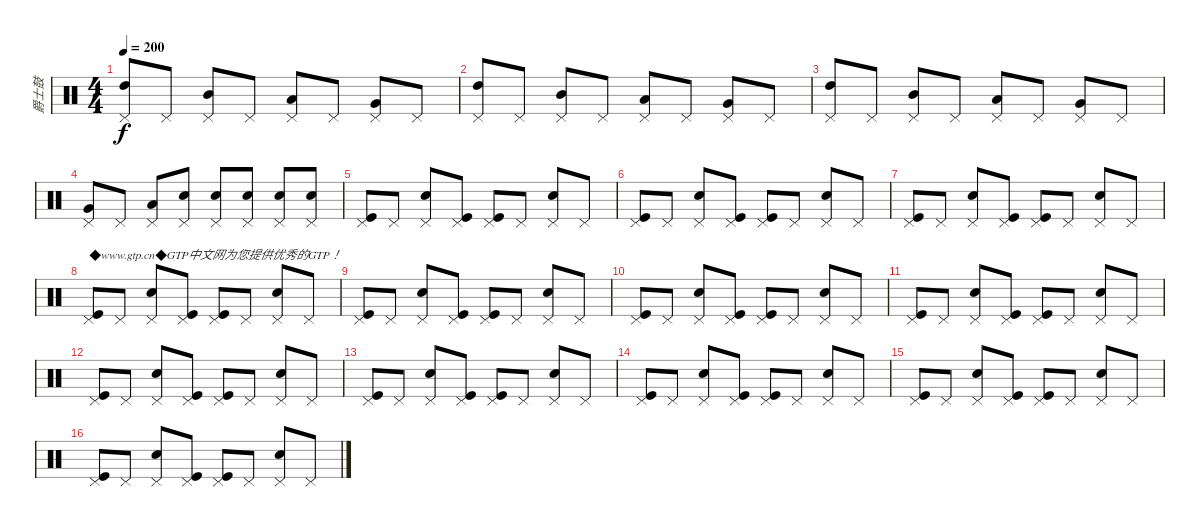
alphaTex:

\track ("爵士鼓" "爵士鼓") {instrument percussion}
\staff {score}
\articulation defaults
\ts (4 4)
\tempo 200
\clef neutral
\ks c
("Pedal Hi-Hat (hit)" "High Tom (hit)").8{dy f} "Pedal Hi-Hat (hit)".8 ("Pedal Hi-Hat (hit)" "Mid Tom (hit)").8 "Pedal Hi-Hat (hit)".8 ("Pedal Hi-Hat (hit)" "Low Tom (hit)").8 "Pedal Hi-Hat (hit)".8 ("Pedal Hi-Hat (hit)" "Very Low Tom (hit)").8 "Pedal Hi-Hat (hit)".8 |
("Pedal Hi-Hat (hit)" "High Tom (hit)").8 "Pedal Hi-Hat (hit)".8 ("Pedal Hi-Hat (hit)" "Mid Tom (hit)").8 "Pedal Hi-Hat (hit)".8 ("Pedal Hi-Hat (hit)" "Low Tom (hit)").8 "Pedal Hi-Hat (hit)".8 ("Pedal Hi-Hat (hit)" "Very Low Tom (hit)").8 "Pedal Hi-Hat (hit)".8 |
("Pedal Hi-Hat (hit)" "High Tom (hit)").8 "Pedal Hi-Hat (hit)".8 ("Pedal Hi-Hat (hit)" "Mid Tom (hit)").8 "Pedal Hi-Hat (hit)".8 ("Pedal Hi-Hat (hit)" "Low Tom (hit)").8 "Pedal Hi-Hat (hit)".8 ("Pedal Hi-Hat (hit)" "Very Low Tom (hit)").8 "Pedal Hi-Hat (hit)".8 |
("Pedal Hi-Hat (hit)" "Very Low Tom (hit)").8 "Pedal Hi-Hat (hit)".8 ("Pedal Hi-Hat (hit)" "Low Floor Tom (hit)").8 ("Pedal Hi-Hat (hit)" "Electric Snare (hit)").8 ("Pedal Hi-Hat (hit)" "Electric Snare (hit)").8 ("Pedal Hi-Hat (hit)" "Electric Snare (hit)").8 ("Pedal Hi-Hat (hit)" "Electric Snare (hit)").8 ("Pedal Hi-Hat (hit)" "Electric Snare (hit)").8 |
("Pedal Hi-Hat (hit)" "Kick (hit)").8 "Pedal Hi-Hat (hit)".8 ("Pedal Hi-Hat (hit)" "Electric Snare (hit)").8 ("Pedal Hi-Hat (hit)" "Kick (hit)").8 ("Pedal Hi-Hat (hit)" "Kick (hit)").8 "Pedal Hi-Hat (hit)".8 ("Pedal Hi-Hat (hit)" "Electric Snare (hit)").8 "Pedal Hi-Hat (hit)".8 |
("Pedal Hi-Hat (hit)" "Kick (hit)").8 "Pedal Hi-Hat (hit)".8 ("Pedal Hi-Hat (hit)" "Electric Snare (hit)").8 ("Pedal Hi-Hat (hit)" "Kick (hit)").8 ("Pedal Hi-Hat (hit)" "Kick (hit)").8 "Pedal Hi-Hat (hit)".8 ("Pedal Hi-Hat (hit)" "Electric Snare (hit)").8 "Pedal Hi-Hat (hit)".8 |
("Pedal Hi-Hat (hit)" "Kick (hit)").8 "Pedal Hi-Hat (hit)".8 ("Pedal Hi-Hat (hit)" "Electric Snare (hit)").8 ("Pedal Hi-Hat (hit)" "Kick (hit)").8 ("Pedal Hi-Hat (hit)" "Kick (hit)").8 "Pedal Hi-Hat (hit)".8 ("Pedal Hi-Hat (hit)" "Electric Snare (hit)").8 "Pedal Hi-Hat (hit)".8 |
("Pedal Hi-Hat (hit)" "Kick (hit)").8{txt "◆www.gtp.cn◆GTP中文网为您提供优秀的GTP！"} "Pedal Hi-Hat (hit)".8 ("Pedal Hi-Hat (hit)" "Electric Snare (hit)").8 ("Pedal Hi-Hat (hit)" "Kick (hit)").8 ("Pedal Hi-Hat (hit)" "Kick (hit)").8 "Pedal Hi-Hat (hit)".8 ("Pedal Hi-Hat (hit)" "Electric Snare (hit)").8 "Pedal Hi-Hat (hit)".8 |
("Pedal Hi-Hat (hit)" "Kick (hit)").8 "Pedal Hi-Hat (hit)".8 ("Pedal Hi-Hat (hit)" "Electric Snare (hit)").8 ("Pedal Hi-Hat (hit)" "Kick (hit)").8 ("Pedal Hi-Hat (hit)" "Kick (hit)").8 "Pedal Hi-Hat (hit)".8 ("Pedal Hi-Hat (hit)" "Electric Snare (hit)").8 "Pedal Hi-Hat (hit)".8 |
("Pedal Hi-Hat (hit)" "Kick (hit)").8 "Pedal Hi-Hat (hit)".8 ("Pedal Hi-Hat (hit)" "Electric Snare (hit)").8 ("Pedal Hi-Hat (hit)" "Kick (hit)").8 ("Pedal Hi-Hat (hit)" "Kick (hit)").8 "Pedal Hi-Hat (hit)".8 ("Pedal Hi-Hat (hit)" "Electric Snare (hit)").8 "Pedal Hi-Hat (hit)".8 |
("Pedal Hi-Hat (hit)" "Kick (hit)").8 "Pedal Hi-Hat (hit)".8 ("Pedal Hi-Hat (hit)" "Electric Snare (hit)").8 ("Pedal Hi-Hat (hit)" "Kick (hit)").8 ("Pedal Hi-Hat (hit)" "Kick (hit)").8 "Pedal Hi-Hat (hit)".8 ("Pedal Hi-Hat (hit)" "Electric Snare (hit)").8 "Pedal Hi-Hat (hit)".8 |
("Pedal Hi-Hat (hit)" "Kick (hit)").8 "Pedal Hi-Hat (hit)".8 ("Pedal Hi-Hat (hit)" "Electric Snare (hit)").8 ("Pedal Hi-Hat (hit)" "Kick (hit)").8 ("Pedal Hi-Hat (hit)" "Kick (hit)").8 "Pedal Hi-Hat (hit)".8 ("Pedal Hi-Hat (hit)" "Electric Snare (hit)").8 "Pedal Hi-Hat (hit)".8 |
("Pedal Hi-Hat (hit)" "Kick (hit)").8 "Pedal Hi-Hat (hit)".8 ("Pedal Hi-Hat (hit)" "Electric Snare (hit)").8 ("Pedal Hi-Hat (hit)" "Kick (hit)").8 ("Pedal Hi-Hat (hit)" "Kick (hit)").8 "Pedal Hi-Hat (hit)".8 ("Pedal Hi-Hat (hit)" "Electric Snare (hit)").8 "Pedal Hi-Hat (hit)".8 |
("Pedal Hi-Hat (hit)" "Kick (hit)").8 "Pedal Hi-Hat (hit)".8 ("Pedal Hi-Hat (hit)" "Electric Snare (hit)").8 ("Pedal Hi-Hat (hit)" "Kick (hit)").8 ("Pedal Hi-Hat (hit)" "Kick (hit)").8 "Pedal Hi-Hat (hit)".8 ("Pedal Hi-Hat (hit)" "Electric Snare (hit)").8 "Pedal Hi-Hat (hit)".8 |
("Pedal Hi-Hat (hit)" "Kick (hit)").8 "Pedal Hi-Hat (hit)".8 ("Pedal Hi-Hat (hit)" "Electric Snare (hit)").8 ("Pedal Hi-Hat (hit)" "Kick (hit)").8 ("Pedal Hi-Hat (hit)" "Kick (hit)").8 "Pedal Hi-Hat (hit)".8 ("Pedal Hi-Hat (hit)" "Electric Snare (hit)").8 "Pedal Hi-Hat (hit)".8 |
("Pedal Hi-Hat (hit)" "Kick (hit)").8 "Pedal Hi-Hat (hit)".8 ("Pedal Hi-Hat (hit)" "Electric Snare (hit)").8 ("Pedal Hi-Hat (hit)" "Kick (hit)").8 ("Pedal Hi-Hat (hit)" "Kick (hit)").8 "Pedal Hi-Hat (hit)".8 ("Pedal Hi-Hat (hit)" "Electric Snare (hit)").8 "Pedal Hi-Hat (hit)".8
